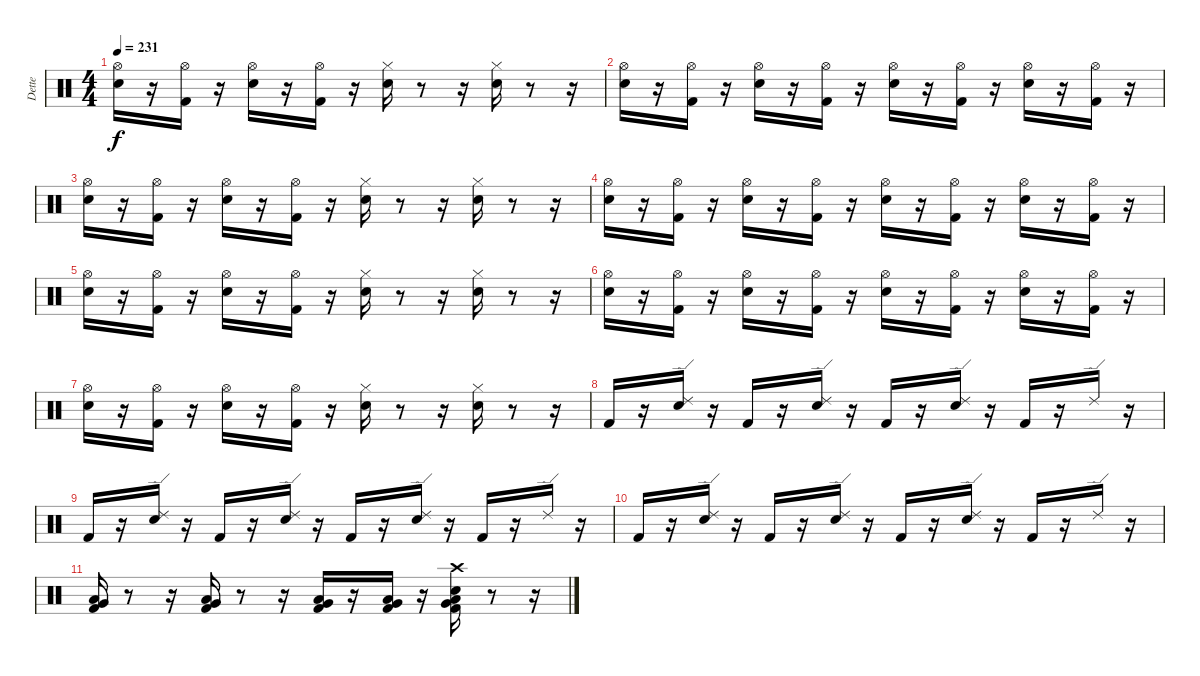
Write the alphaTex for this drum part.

\track ("Dette" "Dette") {instrument percussion}
\staff {score}
\articulation defaults
\ts (4 4)
\tempo 231
\clef neutral
\ks c
("Snare (hit) 2" "Hi-Hat (open)").16{dy f} r.16 ("Kick (hit) 2" "Hi-Hat (open)").16 r.16 ("Snare (hit) 2" "Hi-Hat (open)").16 r.16 ("Kick (hit) 2" "Hi-Hat (open)").16 r.16 ("Snare (hit) 2" "Hi-Hat (closed)").16 r.8 r.16 ("Snare (hit) 2" "Hi-Hat (closed)").16 r.8 r.16 |
("Snare (hit) 2" "Hi-Hat (open)").16 r.16 ("Kick (hit) 2" "Hi-Hat (open)").16 r.16 ("Snare (hit) 2" "Hi-Hat (open)").16 r.16 ("Kick (hit) 2" "Hi-Hat (open)").16 r.16 ("Snare (hit) 2" "Hi-Hat (open)").16 r.16 ("Kick (hit) 2" "Hi-Hat (open)").16 r.16 ("Snare (hit) 2" "Hi-Hat (open)").16 r.16 ("Kick (hit) 2" "Hi-Hat (open)").16 r.16 |
("Snare (hit) 2" "Hi-Hat (open)").16 r.16 ("Kick (hit) 2" "Hi-Hat (open)").16 r.16 ("Snare (hit) 2" "Hi-Hat (open)").16 r.16 ("Kick (hit) 2" "Hi-Hat (open)").16 r.16 ("Snare (hit) 2" "Hi-Hat (closed)").16 r.8 r.16 ("Snare (hit) 2" "Hi-Hat (closed)").16 r.8 r.16 |
("Snare (hit) 2" "Hi-Hat (open)").16 r.16 ("Kick (hit) 2" "Hi-Hat (open)").16 r.16 ("Snare (hit) 2" "Hi-Hat (open)").16 r.16 ("Kick (hit) 2" "Hi-Hat (open)").16 r.16 ("Snare (hit) 2" "Hi-Hat (open)").16 r.16 ("Kick (hit) 2" "Hi-Hat (open)").16 r.16 ("Snare (hit) 2" "Hi-Hat (open)").16 r.16 ("Kick (hit) 2" "Hi-Hat (open)").16 r.16 |
("Snare (hit) 2" "Hi-Hat (open)").16 r.16 ("Kick (hit) 2" "Hi-Hat (open)").16 r.16 ("Snare (hit) 2" "Hi-Hat (open)").16 r.16 ("Kick (hit) 2" "Hi-Hat (open)").16 r.16 ("Snare (hit) 2" "Hi-Hat (closed)").16 r.8 r.16 ("Snare (hit) 2" "Hi-Hat (closed)").16 r.8 r.16 |
("Snare (hit) 2" "Hi-Hat (open)").16 r.16 ("Kick (hit) 2" "Hi-Hat (open)").16 r.16 ("Snare (hit) 2" "Hi-Hat (open)").16 r.16 ("Kick (hit) 2" "Hi-Hat (open)").16 r.16 ("Snare (hit) 2" "Hi-Hat (open)").16 r.16 ("Kick (hit) 2" "Hi-Hat (open)").16 r.16 ("Snare (hit) 2" "Hi-Hat (open)").16 r.16 ("Kick (hit) 2" "Hi-Hat (open)").16 r.16 |
("Snare (hit) 2" "Hi-Hat (open)").16 r.16 ("Kick (hit) 2" "Hi-Hat (open)").16 r.16 ("Snare (hit) 2" "Hi-Hat (open)").16 r.16 ("Kick (hit) 2" "Hi-Hat (open)").16 r.16 ("Snare (hit) 2" "Hi-Hat (closed)").16 r.8 r.16 ("Snare (hit) 2" "Hi-Hat (closed)").16 r.8 r.16 |
"Kick (hit) 2".16 r.16 ("Snare (hit) 2" "Ride (edge) 2").16 r.16 "Kick (hit) 2".16 r.16 ("Snare (hit) 2" "Ride (edge) 2").16 r.16 "Kick (hit) 2".16 r.16 ("Snare (hit) 2" "Ride (edge) 2").16 r.16 "Kick (hit) 2".16 r.16 "Ride (edge) 2".16 r.16 |
"Kick (hit) 2".16 r.16 ("Snare (hit) 2" "Ride (edge) 2").16 r.16 "Kick (hit) 2".16 r.16 ("Snare (hit) 2" "Ride (edge) 2").16 r.16 "Kick (hit) 2".16 r.16 ("Snare (hit) 2" "Ride (edge) 2").16 r.16 "Kick (hit) 2".16 r.16 "Ride (edge) 2".16 r.16 |
"Kick (hit) 2".16 r.16 ("Snare (hit) 2" "Ride (edge) 2").16 r.16 "Kick (hit) 2".16 r.16 ("Snare (hit) 2" "Ride (edge) 2").16 r.16 "Kick (hit) 2".16 r.16 ("Snare (hit) 2" "Ride (edge) 2").16 r.16 "Kick (hit) 2".16 r.16 "Ride (edge) 2".16 r.16 |
("Kick (hit) 2" "Low Floor Tom (hit)" "Very Low Tom (hit)").16 r.8 r.16 ("Kick (hit) 2" "Low Floor Tom (hit)" "Very Low Tom (hit)").16 r.8 r.16 ("Kick (hit) 2" "Low Floor Tom (hit)" "Very Low Tom (hit)").16 r.16 ("Kick (hit) 2" "Low Floor Tom (hit)" "Very Low Tom (hit)").16 r.16 ("Kick (hit) 2" "Snare (hit) 2" "Low Floor Tom (hit)" "Very Low Tom (hit)" "Crash high (hit)").16 r.8 r.16
